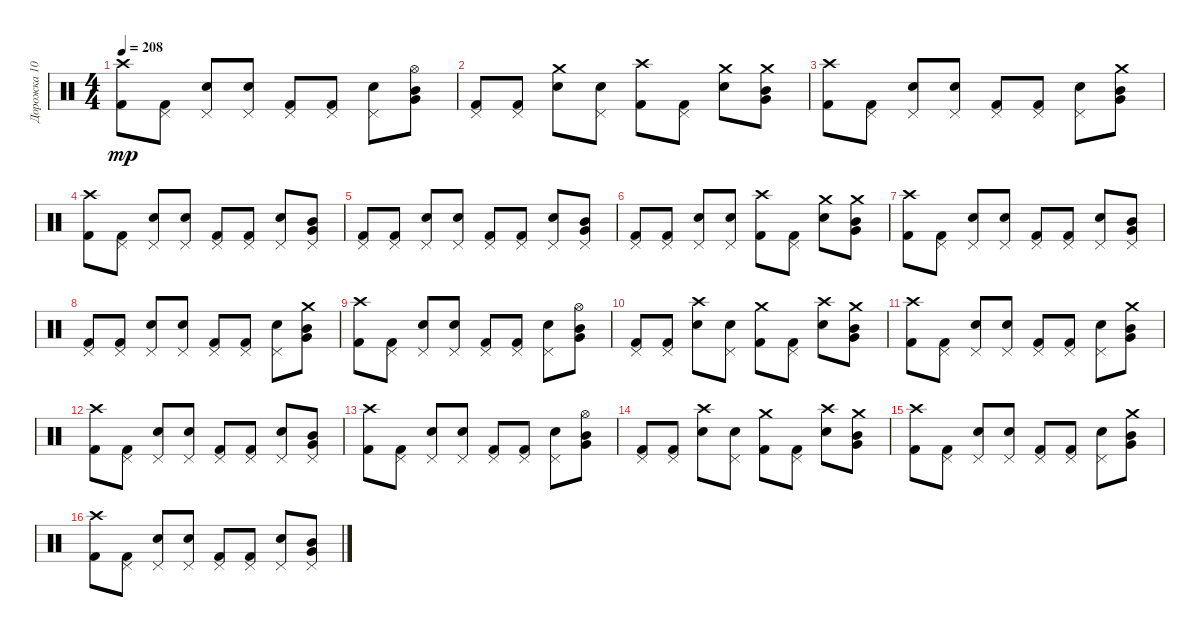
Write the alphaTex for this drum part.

\track ("Дорожка 10" "Дорожка 10") {instrument percussion}
\staff {score}
\articulation defaults
\ts (4 4)
\tempo 208
\clef neutral
\ks c
("Kick (hit) 2" "Crash high (hit)").8{dy mp} ("Kick (hit) 2" "Pedal Hi-Hat (hit)").8 ("Snare (hit) 2" "Pedal Hi-Hat (hit)").8 ("Snare (hit) 2" "Pedal Hi-Hat (hit)").8 ("Kick (hit) 2" "Pedal Hi-Hat (hit)").8 ("Kick (hit) 2" "Pedal Hi-Hat (hit)").8 ("Snare (hit) 2" "Pedal Hi-Hat (hit)").8 ("Mid Tom (hit)" "Very Low Tom (hit)" "Hi-Hat (open)").8 |
("Kick (hit) 2" "Pedal Hi-Hat (hit)").8 ("Kick (hit) 2" "Pedal Hi-Hat (hit)").8 ("Snare (hit) 2" "Crash medium (hit)").8 ("Snare (hit) 2" "Pedal Hi-Hat (hit)").8 ("Kick (hit) 2" "Crash high (hit)").8 ("Kick (hit) 2" "Pedal Hi-Hat (hit)").8 ("Snare (hit) 2" "Crash medium (hit)").8 ("Mid Tom (hit)" "Very Low Tom (hit)" "Crash medium (hit)").8 |
("Kick (hit) 2" "Crash high (hit)").8 ("Kick (hit) 2" "Pedal Hi-Hat (hit)").8 ("Snare (hit) 2" "Pedal Hi-Hat (hit)").8 ("Snare (hit) 2" "Pedal Hi-Hat (hit)").8 ("Kick (hit) 2" "Pedal Hi-Hat (hit)").8 ("Kick (hit) 2" "Pedal Hi-Hat (hit)").8 ("Snare (hit) 2" "Pedal Hi-Hat (hit)").8 ("Mid Tom (hit)" "Very Low Tom (hit)" "Crash medium (hit)").8 |
("Kick (hit) 2" "Crash high (hit)").8 ("Kick (hit) 2" "Pedal Hi-Hat (hit)").8 ("Snare (hit) 2" "Pedal Hi-Hat (hit)").8 ("Snare (hit) 2" "Pedal Hi-Hat (hit)").8 ("Kick (hit) 2" "Pedal Hi-Hat (hit)").8 ("Kick (hit) 2" "Pedal Hi-Hat (hit)").8 ("Snare (hit) 2" "Pedal Hi-Hat (hit)").8 ("Mid Tom (hit)" "Very Low Tom (hit)" "Pedal Hi-Hat (hit)").8 |
("Kick (hit) 2" "Pedal Hi-Hat (hit)").8 ("Kick (hit) 2" "Pedal Hi-Hat (hit)").8 ("Snare (hit) 2" "Pedal Hi-Hat (hit)").8 ("Snare (hit) 2" "Pedal Hi-Hat (hit)").8 ("Kick (hit) 2" "Pedal Hi-Hat (hit)").8 ("Kick (hit) 2" "Pedal Hi-Hat (hit)").8 ("Snare (hit) 2" "Pedal Hi-Hat (hit)").8 ("Mid Tom (hit)" "Very Low Tom (hit)" "Pedal Hi-Hat (hit)").8 |
("Kick (hit) 2" "Pedal Hi-Hat (hit)").8 ("Kick (hit) 2" "Pedal Hi-Hat (hit)").8 ("Snare (hit) 2" "Pedal Hi-Hat (hit)").8 ("Snare (hit) 2" "Pedal Hi-Hat (hit)").8 ("Kick (hit) 2" "Crash high (hit)").8 ("Kick (hit) 2" "Pedal Hi-Hat (hit)").8 ("Snare (hit) 2" "Crash medium (hit)").8 ("Mid Tom (hit)" "Very Low Tom (hit)" "Crash medium (hit)").8 |
("Kick (hit) 2" "Crash high (hit)").8 ("Kick (hit) 2" "Pedal Hi-Hat (hit)").8 ("Snare (hit) 2" "Pedal Hi-Hat (hit)").8 ("Snare (hit) 2" "Pedal Hi-Hat (hit)").8 ("Kick (hit) 2" "Pedal Hi-Hat (hit)").8 ("Kick (hit) 2" "Pedal Hi-Hat (hit)").8 ("Snare (hit) 2" "Pedal Hi-Hat (hit)").8 ("Mid Tom (hit)" "Very Low Tom (hit)" "Pedal Hi-Hat (hit)").8 |
("Kick (hit) 2" "Pedal Hi-Hat (hit)").8 ("Kick (hit) 2" "Pedal Hi-Hat (hit)").8 ("Snare (hit) 2" "Pedal Hi-Hat (hit)").8 ("Snare (hit) 2" "Pedal Hi-Hat (hit)").8 ("Kick (hit) 2" "Pedal Hi-Hat (hit)").8 ("Kick (hit) 2" "Pedal Hi-Hat (hit)").8 ("Snare (hit) 2" "Pedal Hi-Hat (hit)").8 ("Mid Tom (hit)" "Very Low Tom (hit)" "Crash medium (hit)").8 |
("Kick (hit) 2" "Crash high (hit)").8 ("Kick (hit) 2" "Pedal Hi-Hat (hit)").8 ("Snare (hit) 2" "Pedal Hi-Hat (hit)").8 ("Snare (hit) 2" "Pedal Hi-Hat (hit)").8 ("Kick (hit) 2" "Pedal Hi-Hat (hit)").8 ("Kick (hit) 2" "Pedal Hi-Hat (hit)").8 ("Snare (hit) 2" "Pedal Hi-Hat (hit)").8 ("Mid Tom (hit)" "Very Low Tom (hit)" "Hi-Hat (open)").8 |
("Kick (hit) 2" "Pedal Hi-Hat (hit)").8 ("Kick (hit) 2" "Pedal Hi-Hat (hit)").8 ("Snare (hit) 2" "Crash high (hit)").8 ("Snare (hit) 2" "Pedal Hi-Hat (hit)").8 ("Kick (hit) 2" "Crash medium (hit)").8 ("Kick (hit) 2" "Pedal Hi-Hat (hit)").8 ("Snare (hit) 2" "Crash high (hit)").8 ("Mid Tom (hit)" "Very Low Tom (hit)" "Crash medium (hit)").8 |
("Kick (hit) 2" "Crash high (hit)").8 ("Kick (hit) 2" "Pedal Hi-Hat (hit)").8 ("Snare (hit) 2" "Pedal Hi-Hat (hit)").8 ("Snare (hit) 2" "Pedal Hi-Hat (hit)").8 ("Kick (hit) 2" "Pedal Hi-Hat (hit)").8 ("Kick (hit) 2" "Pedal Hi-Hat (hit)").8 ("Snare (hit) 2" "Pedal Hi-Hat (hit)").8 ("Mid Tom (hit)" "Very Low Tom (hit)" "Crash medium (hit)").8 |
("Kick (hit) 2" "Crash high (hit)").8 ("Kick (hit) 2" "Pedal Hi-Hat (hit)").8 ("Snare (hit) 2" "Pedal Hi-Hat (hit)").8 ("Snare (hit) 2" "Pedal Hi-Hat (hit)").8 ("Kick (hit) 2" "Pedal Hi-Hat (hit)").8 ("Kick (hit) 2" "Pedal Hi-Hat (hit)").8 ("Snare (hit) 2" "Pedal Hi-Hat (hit)").8 ("Mid Tom (hit)" "Very Low Tom (hit)" "Pedal Hi-Hat (hit)").8 |
("Kick (hit) 2" "Crash high (hit)").8 ("Kick (hit) 2" "Pedal Hi-Hat (hit)").8 ("Snare (hit) 2" "Pedal Hi-Hat (hit)").8 ("Snare (hit) 2" "Pedal Hi-Hat (hit)").8 ("Kick (hit) 2" "Pedal Hi-Hat (hit)").8 ("Kick (hit) 2" "Pedal Hi-Hat (hit)").8 ("Snare (hit) 2" "Pedal Hi-Hat (hit)").8 ("Mid Tom (hit)" "Very Low Tom (hit)" "Hi-Hat (open)").8 |
("Kick (hit) 2" "Pedal Hi-Hat (hit)").8 ("Kick (hit) 2" "Pedal Hi-Hat (hit)").8 ("Snare (hit) 2" "Crash high (hit)").8 ("Snare (hit) 2" "Pedal Hi-Hat (hit)").8 ("Kick (hit) 2" "Crash medium (hit)").8 ("Kick (hit) 2" "Pedal Hi-Hat (hit)").8 ("Snare (hit) 2" "Crash high (hit)").8 ("Mid Tom (hit)" "Very Low Tom (hit)" "Crash medium (hit)").8 |
("Kick (hit) 2" "Crash high (hit)").8 ("Kick (hit) 2" "Pedal Hi-Hat (hit)").8 ("Snare (hit) 2" "Pedal Hi-Hat (hit)").8 ("Snare (hit) 2" "Pedal Hi-Hat (hit)").8 ("Kick (hit) 2" "Pedal Hi-Hat (hit)").8 ("Kick (hit) 2" "Pedal Hi-Hat (hit)").8 ("Snare (hit) 2" "Pedal Hi-Hat (hit)").8 ("Mid Tom (hit)" "Very Low Tom (hit)" "Crash medium (hit)").8 |
("Kick (hit) 2" "Crash high (hit)").8 ("Kick (hit) 2" "Pedal Hi-Hat (hit)").8 ("Snare (hit) 2" "Pedal Hi-Hat (hit)").8 ("Snare (hit) 2" "Pedal Hi-Hat (hit)").8 ("Kick (hit) 2" "Pedal Hi-Hat (hit)").8 ("Kick (hit) 2" "Pedal Hi-Hat (hit)").8 ("Snare (hit) 2" "Pedal Hi-Hat (hit)").8 ("Mid Tom (hit)" "Very Low Tom (hit)" "Pedal Hi-Hat (hit)").8
